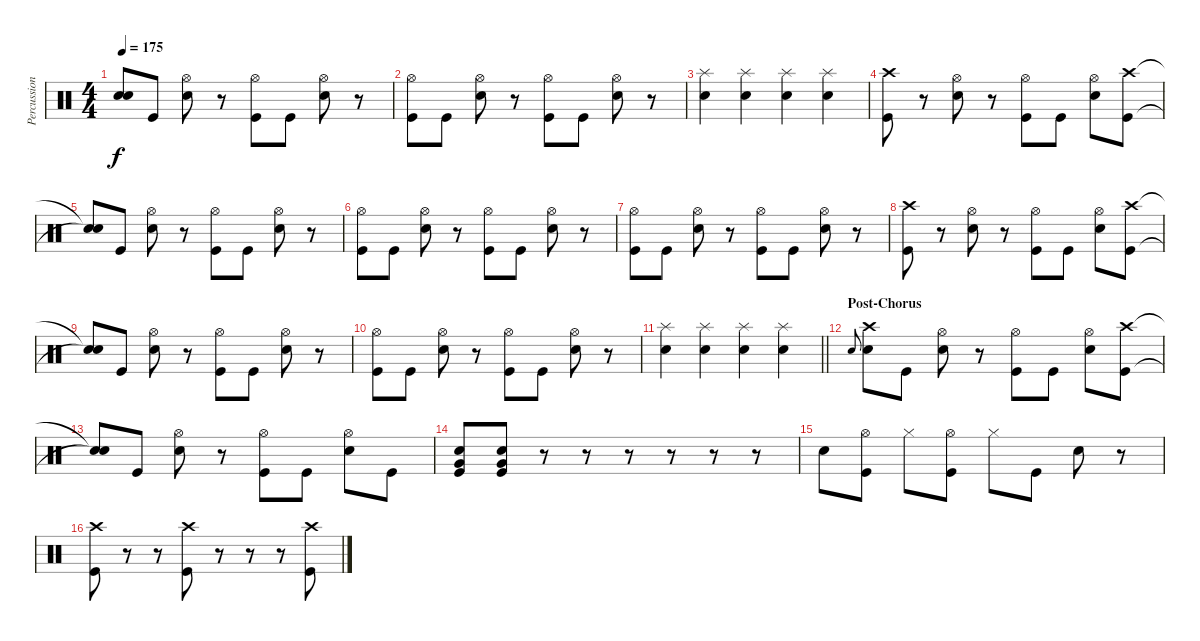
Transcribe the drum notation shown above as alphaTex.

\track ("Percussion" "Percussion") {instrument percussion}
\staff {score}
\articulation defaults
\ts (4 4)
\tempo 175
\clef neutral
\ks c
("Snare (hit)"{t} "Snare (hit)"{t}).8{dy f} "Kick (hit)".8 ("Hi-Hat (open)" "Snare (hit) 2").8 r.8 ("Hi-Hat (open)" "Kick (hit)").8 "Kick (hit)".8 ("Hi-Hat (open)" "Snare (hit) 2").8 r.8 |
("Hi-Hat (open)" "Kick (hit)").8 "Kick (hit)".8 ("Hi-Hat (open)" "Snare (hit) 2").8 r.8 ("Hi-Hat (open)" "Kick (hit)").8 "Kick (hit)".8 ("Hi-Hat (open)" "Snare (hit) 2").8 r.8 |
("Splash (hit)" "Snare (hit) 2").4 ("Splash (hit)" "Snare (hit) 2").4 ("Splash (hit)" "Snare (hit) 2").4 ("Splash (hit)" "Snare (hit) 2").4 |
("Crash high (hit)" "Kick (hit)").8 r.8 ("Hi-Hat (open)" "Snare (hit) 2").8 r.8 ("Hi-Hat (open)" "Kick (hit)").8 "Kick (hit)".8 ("Hi-Hat (open)" "Snare (hit) 2").8 ("Crash high (hit)" "Kick (hit)").8 |
("Snare (hit)"{t} "Snare (hit)"{t}).8 "Kick (hit)".8 ("Hi-Hat (open)" "Snare (hit) 2").8 r.8 ("Hi-Hat (open)" "Kick (hit)").8 "Kick (hit)".8 ("Hi-Hat (open)" "Snare (hit) 2").8 r.8 |
("Hi-Hat (open)" "Kick (hit)").8 "Kick (hit)".8 ("Hi-Hat (open)" "Snare (hit) 2").8 r.8 ("Hi-Hat (open)" "Kick (hit)").8 "Kick (hit)".8 ("Hi-Hat (open)" "Snare (hit) 2").8 r.8 |
("Hi-Hat (open)" "Kick (hit)").8 "Kick (hit)".8 ("Hi-Hat (open)" "Snare (hit) 2").8 r.8 ("Hi-Hat (open)" "Kick (hit)").8 "Kick (hit)".8 ("Hi-Hat (open)" "Snare (hit) 2").8 r.8 |
("Crash high (hit)" "Kick (hit)").8 r.8 ("Hi-Hat (open)" "Snare (hit) 2").8 r.8 ("Hi-Hat (open)" "Kick (hit)").8 "Kick (hit)".8 ("Hi-Hat (open)" "Snare (hit) 2").8 ("Crash high (hit)" "Kick (hit)").8 |
("Snare (hit)"{t} "Snare (hit)"{t}).8 "Kick (hit)".8 ("Hi-Hat (open)" "Snare (hit) 2").8 r.8 ("Hi-Hat (open)" "Kick (hit)").8 "Kick (hit)".8 ("Hi-Hat (open)" "Snare (hit) 2").8 r.8 |
("Hi-Hat (open)" "Kick (hit)").8 "Kick (hit)".8 ("Hi-Hat (open)" "Snare (hit) 2").8 r.8 ("Hi-Hat (open)" "Kick (hit)").8 "Kick (hit)".8 ("Hi-Hat (open)" "Snare (hit) 2").8 r.8 |
\barLineRight lightlight
("Splash (hit)" "Snare (hit) 2").4 ("Splash (hit)" "Snare (hit) 2").4 ("Splash (hit)" "Snare (hit) 2").4 ("Splash (hit)" "Snare (hit) 2").4 |
\section ("" "Post-Chorus")
"Snare (hit) 2".8{gr onbeat} ("Crash high (hit)" "Snare (hit) 2").8 "Kick (hit)".8 ("Hi-Hat (open)" "Snare (hit) 2").8 r.8 ("Hi-Hat (open)" "Kick (hit)").8 "Kick (hit)".8 ("Hi-Hat (open)" "Snare (hit) 2").8 ("Crash high (hit)" "Kick (hit)").8 |
("Snare (hit)"{t} "Snare (hit)"{t}).8 "Kick (hit)".8 ("Hi-Hat (open)" "Snare (hit) 2").8 r.8 ("Hi-Hat (open)" "Kick (hit)").8 "Kick (hit)".8 ("Hi-Hat (open)" "Snare (hit) 2").8 "Kick (hit)".8 |
("Snare (hit) 2" "Very Low Tom (hit)" "Kick (hit)").8 ("Snare (hit) 2" "Very Low Tom (hit)" "Kick (hit)").8 r.8 r.8 r.8 r.8 r.8 r.8 |
"Snare (hit) 2".8 ("Hi-Hat (open)" "Kick (hit)").8 "Hi-Hat (closed)".8 ("Hi-Hat (open)" "Kick (hit)").8 "Hi-Hat (closed)".8 "Kick (hit)".8 "Snare (hit) 2".8 r.8 |
("Crash high (hit)" "Kick (hit)").8 r.8 r.8 ("Crash high (hit)" "Kick (hit)").8 r.8 r.8 r.8 ("Crash high (hit)" "Kick (hit)").8
